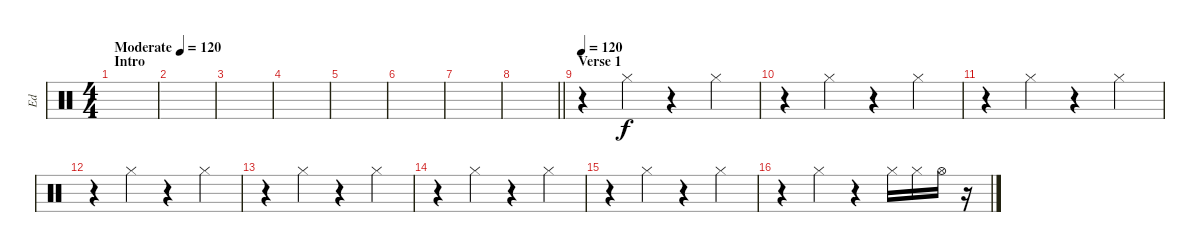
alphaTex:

\track ("Ed" "Ed") {instrument percussion}
\staff {score}
\articulation defaults
\ts (4 4)
\section ("" "Intro")
\tempo (120 "Moderate")
\clef neutral
\ks c
|
|
|
|
|
|
|
\barLineRight lightlight
|
\section ("" "Verse 1")
\tempo 120
r.4 "Hi-Hat (closed)".4 r.4 "Hi-Hat (closed)".4 |
r.4 "Hi-Hat (closed)".4 r.4 "Hi-Hat (closed)".4 |
r.4 "Hi-Hat (closed)".4 r.4 "Hi-Hat (closed)".4 |
r.4 "Hi-Hat (closed)".4 r.4 "Hi-Hat (closed)".4 |
r.4 "Hi-Hat (closed)".4 r.4 "Hi-Hat (closed)".4 |
r.4 "Hi-Hat (closed)".4 r.4 "Hi-Hat (closed)".4 |
r.4 "Hi-Hat (closed)".4 r.4 "Hi-Hat (closed)".4 |
r.4 "Hi-Hat (closed)".4 r.4 "Hi-Hat (closed)".16 "Hi-Hat (closed)".16 "Hi-Hat (open)".16 r.16
